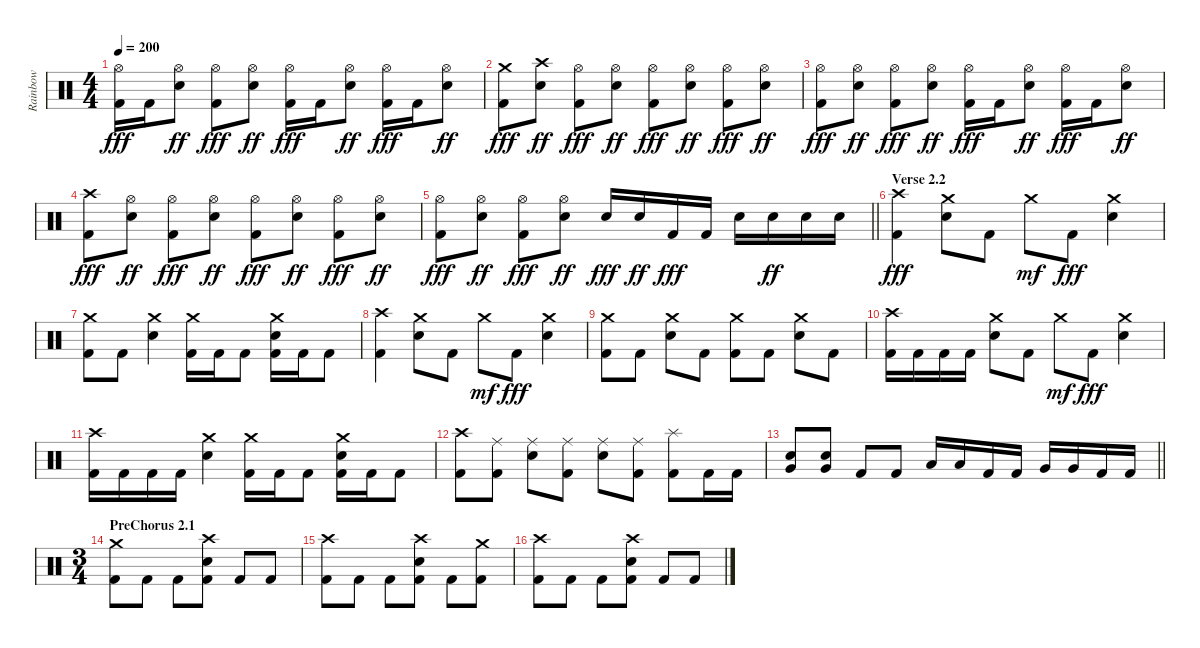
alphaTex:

\track ("Rainbow" "Rainbow") {instrument percussion}
\staff {score}
\articulation defaults
\ts (4 4)
\tempo 200
\clef neutral
\ks c
("Hi-Hat (open)" "Kick (hit) 2").16{dy fff} "Kick (hit) 2".16 ("Hi-Hat (open)" "Electric Snare (hit)").8{dy ff} ("Hi-Hat (open)" "Kick (hit) 2").8{dy fff} ("Hi-Hat (open)" "Electric Snare (hit)").8{dy ff} ("Hi-Hat (open)" "Kick (hit) 2").16{dy fff} "Kick (hit) 2".16 ("Hi-Hat (open)" "Electric Snare (hit)").8{dy ff} ("Hi-Hat (open)" "Kick (hit) 2").16{dy fff} "Kick (hit) 2".16 ("Hi-Hat (open)" "Electric Snare (hit)").8{dy ff} |
("Crash medium (hit)" "Kick (hit) 2").8{dy fff} ("Crash high (hit)" "Electric Snare (hit)").8{dy ff} ("Hi-Hat (open)" "Kick (hit) 2").8{dy fff} ("Hi-Hat (open)" "Electric Snare (hit)").8{dy ff} ("Hi-Hat (open)" "Kick (hit) 2").8{dy fff} ("Hi-Hat (open)" "Electric Snare (hit)").8{dy ff} ("Hi-Hat (open)" "Kick (hit) 2").8{dy fff} ("Hi-Hat (open)" "Electric Snare (hit)").8{dy ff} |
("Hi-Hat (open)" "Kick (hit) 2").8{dy fff} ("Hi-Hat (open)" "Electric Snare (hit)").8{dy ff} ("Hi-Hat (open)" "Kick (hit) 2").8{dy fff} ("Hi-Hat (open)" "Electric Snare (hit)").8{dy ff} ("Hi-Hat (open)" "Kick (hit) 2").16{dy fff} "Kick (hit) 2".16 ("Hi-Hat (open)" "Electric Snare (hit)").8{dy ff} ("Hi-Hat (open)" "Kick (hit) 2").16{dy fff} "Kick (hit) 2".16 ("Hi-Hat (open)" "Electric Snare (hit)").8{dy ff} |
("Crash high (hit)" "Kick (hit) 2").8{dy fff} ("Hi-Hat (open)" "Electric Snare (hit)").8{dy ff} ("Hi-Hat (open)" "Kick (hit) 2").8{dy fff} ("Hi-Hat (open)" "Electric Snare (hit)").8{dy ff} ("Hi-Hat (open)" "Kick (hit) 2").8{dy fff} ("Hi-Hat (open)" "Electric Snare (hit)").8{dy ff} ("Hi-Hat (open)" "Kick (hit) 2").8{dy fff} ("Hi-Hat (open)" "Electric Snare (hit)").8{dy ff} |
\barLineRight lightlight
("Hi-Hat (open)" "Kick (hit) 2").8{dy fff} ("Hi-Hat (open)" "Electric Snare (hit)").8{dy ff} ("Hi-Hat (open)" "Kick (hit) 2").8{dy fff} ("Hi-Hat (open)" "Electric Snare (hit)").8{dy ff} "Electric Snare (hit)".16{dy fff} "Electric Snare (hit)".16{dy ff} "Kick (hit) 2".16{dy fff} "Kick (hit) 2".16 "Electric Snare (hit)".16 "Electric Snare (hit)".16{dy ff} "Electric Snare (hit)".16 "Electric Snare (hit)".16 |
\section ("" "Verse 2.2")
("Crash high (hit)" "Kick (hit) 2").4{dy fff} ("Crash medium (hit)" "Electric Snare (hit)").8 "Kick (hit) 2".8 "Crash medium (hit)".8{dy mf} "Kick (hit) 2".8{dy fff} ("Crash medium (hit)" "Electric Snare (hit)").4 |
("Crash medium (hit)" "Kick (hit) 2").8 "Kick (hit) 2".8 ("Crash medium (hit)" "Electric Snare (hit)").4 ("Crash medium (hit)" "Kick (hit) 2").16 "Kick (hit) 2".16 "Kick (hit) 2".8 ("Crash medium (hit)" "Electric Snare (hit)" "Kick (hit) 2").16 "Kick (hit) 2".16 "Kick (hit) 2".8 |
("Crash high (hit)" "Kick (hit) 2").4 ("Crash medium (hit)" "Electric Snare (hit)").8 "Kick (hit) 2".8 "Crash medium (hit)".8{dy mf} "Kick (hit) 2".8{dy fff} ("Crash medium (hit)" "Electric Snare (hit)").4 |
("Crash medium (hit)" "Kick (hit) 2").8 "Kick (hit) 2".8 ("Crash medium (hit)" "Electric Snare (hit)").8 "Kick (hit) 2".8 ("Crash medium (hit)" "Kick (hit) 2").8 "Kick (hit) 2".8 ("Crash medium (hit)" "Electric Snare (hit)").8 "Kick (hit) 2".8 |
("Crash high (hit)" "Kick (hit) 2").16 "Kick (hit) 2".16 "Kick (hit) 2".16 "Kick (hit) 2".16 ("Crash medium (hit)" "Electric Snare (hit)").8 "Kick (hit) 2".8 "Crash medium (hit)".8{dy mf} "Kick (hit) 2".8{dy fff} ("Crash medium (hit)" "Electric Snare (hit)").4 |
("Crash high (hit)" "Kick (hit) 2").16 "Kick (hit) 2".16 "Kick (hit) 2".16 "Kick (hit) 2".16 ("Crash medium (hit)" "Electric Snare (hit)").4 ("Crash medium (hit)" "Kick (hit) 2").16 "Kick (hit) 2".16 "Kick (hit) 2".8 ("Crash medium (hit)" "Electric Snare (hit)" "Kick (hit) 2").16 "Kick (hit) 2".16 "Kick (hit) 2".8 |
("Crash high (hit)" "Kick (hit) 2").8 ("Ride (middle)" "Kick (hit) 2").8 ("Ride (middle)" "Electric Snare (hit)").8 ("Ride (middle)" "Kick (hit) 2").8 ("Ride (middle)" "Electric Snare (hit)").8 ("Ride (middle)" "Kick (hit) 2").8 ("Splash (hit)" "Kick (hit) 2").8 "Kick (hit) 2".16 "Kick (hit) 2".16 |
\barLineRight lightlight
("Electric Snare (hit)" "Very Low Tom (hit)").8 ("Electric Snare (hit)" "Very Low Tom (hit)").8 "Kick (hit) 2".8 "Kick (hit) 2".8 "Low Tom (hit)".16 "Low Tom (hit)".16 "Kick (hit) 2".16 "Kick (hit) 2".16 "Very Low Tom (hit)".16 "Very Low Tom (hit)".16 "Kick (hit) 2".16 "Kick (hit) 2".16 |
\ts (3 4)
\section ("" "PreChorus 2.1")
("Crash medium (hit)" "Kick (hit) 2").8 "Kick (hit) 2".8 "Kick (hit) 2".8 ("Crash high (hit)" "Electric Snare (hit)" "Kick (hit) 2").8 "Kick (hit) 2".8 "Kick (hit) 2".8 |
("Crash high (hit)" "Kick (hit) 2").8 "Kick (hit) 2".8 "Kick (hit) 2".8 ("Crash high (hit)" "Electric Snare (hit)" "Kick (hit) 2").8 "Kick (hit) 2".8 ("Crash medium (hit)" "Kick (hit) 2").8 |
("Crash high (hit)" "Kick (hit) 2").8 "Kick (hit) 2".8 "Kick (hit) 2".8 ("Crash high (hit)" "Electric Snare (hit)" "Kick (hit) 2").8 "Kick (hit) 2".8 "Kick (hit) 2".8
